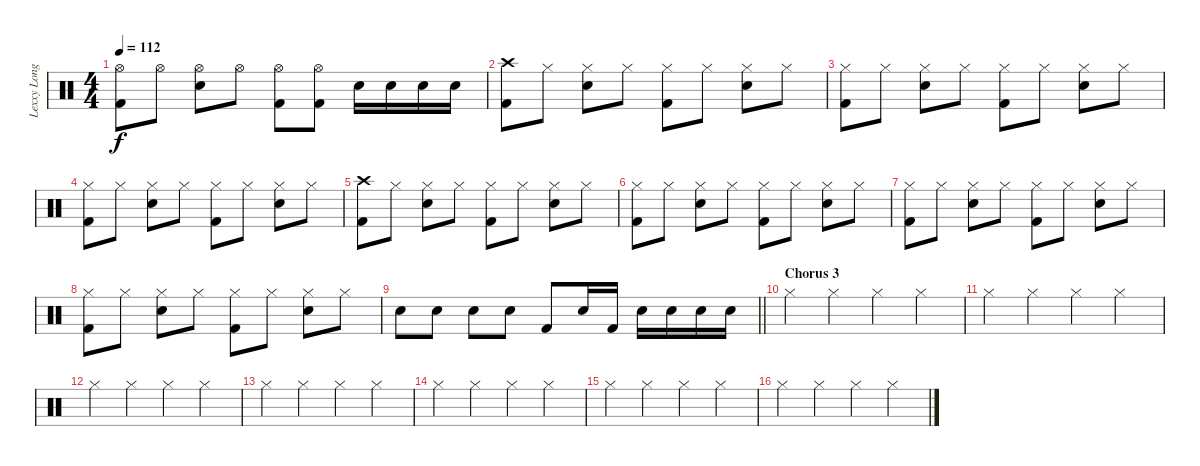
\track ("Lexxy Longlegz (Chuto)" "Lexxy Long") {instrument percussion}
\staff {score}
\articulation defaults
\ts (4 4)
\tempo 112
\clef neutral
\ks c
("Hi-Hat (open)" "Kick (hit) 2").8{dy f} "Hi-Hat (open)".8 ("Hi-Hat (open)" "Snare (hit) 2").8 "Hi-Hat (open)".8 ("Hi-Hat (open)" "Kick (hit) 2").8 ("Hi-Hat (open)" "Kick (hit) 2").8 "Snare (hit) 2".16 "Snare (hit) 2".16 "Snare (hit) 2".16 "Snare (hit) 2".16 |
("Crash high (hit)" "Kick (hit) 2").8 "Hi-Hat (closed)".8 ("Hi-Hat (closed)" "Snare (hit) 2").8 "Hi-Hat (closed)".8 ("Hi-Hat (closed)" "Kick (hit) 2").8 "Hi-Hat (closed)".8 ("Hi-Hat (closed)" "Snare (hit) 2").8 "Hi-Hat (closed)".8 |
("Hi-Hat (closed)" "Kick (hit) 2").8 "Hi-Hat (closed)".8 ("Hi-Hat (closed)" "Snare (hit) 2").8 "Hi-Hat (closed)".8 ("Hi-Hat (closed)" "Kick (hit) 2").8 "Hi-Hat (closed)".8 ("Hi-Hat (closed)" "Snare (hit) 2").8 "Hi-Hat (closed)".8 |
("Hi-Hat (closed)" "Kick (hit) 2").8 "Hi-Hat (closed)".8 ("Hi-Hat (closed)" "Snare (hit) 2").8 "Hi-Hat (closed)".8 ("Hi-Hat (closed)" "Kick (hit) 2").8 "Hi-Hat (closed)".8 ("Hi-Hat (closed)" "Snare (hit) 2").8 "Hi-Hat (closed)".8 |
("Crash high (hit)" "Kick (hit) 2").8 "Hi-Hat (closed)".8 ("Hi-Hat (closed)" "Snare (hit) 2").8 "Hi-Hat (closed)".8 ("Hi-Hat (closed)" "Kick (hit) 2").8 "Hi-Hat (closed)".8 ("Hi-Hat (closed)" "Snare (hit) 2").8 "Hi-Hat (closed)".8 |
("Hi-Hat (closed)" "Kick (hit) 2").8 "Hi-Hat (closed)".8 ("Hi-Hat (closed)" "Snare (hit) 2").8 "Hi-Hat (closed)".8 ("Hi-Hat (closed)" "Kick (hit) 2").8 "Hi-Hat (closed)".8 ("Hi-Hat (closed)" "Snare (hit) 2").8 "Hi-Hat (closed)".8 |
("Hi-Hat (closed)" "Kick (hit) 2").8 "Hi-Hat (closed)".8 ("Hi-Hat (closed)" "Snare (hit) 2").8 "Hi-Hat (closed)".8 ("Hi-Hat (closed)" "Kick (hit) 2").8 "Hi-Hat (closed)".8 ("Hi-Hat (closed)" "Snare (hit) 2").8 "Hi-Hat (closed)".8 |
("Hi-Hat (closed)" "Kick (hit) 2").8 "Hi-Hat (closed)".8 ("Hi-Hat (closed)" "Snare (hit) 2").8 "Hi-Hat (closed)".8 ("Hi-Hat (closed)" "Kick (hit) 2").8 "Hi-Hat (closed)".8 ("Hi-Hat (closed)" "Snare (hit) 2").8 "Hi-Hat (closed)".8 |
\barLineRight lightlight "Snare (hit) 2".8 "Snare (hit) 2".8 "Snare (hit) 2".8 "Snare (hit) 2".8 "Kick (hit) 2".8 "Snare (hit) 2".16 "Kick (hit) 2".16 "Snare (hit) 2".16 "Snare (hit) 2".16 "Snare (hit) 2".16 "Snare (hit) 2".16
|
\section ("" "Chorus 3")
"Hi-Hat (closed)".4 "Hi-Hat (closed)".4 "Hi-Hat (closed)".4 "Hi-Hat (closed)".4 |
"Hi-Hat (closed)".4 "Hi-Hat (closed)".4 "Hi-Hat (closed)".4 "Hi-Hat (closed)".4 |
"Hi-Hat (closed)".4 "Hi-Hat (closed)".4 "Hi-Hat (closed)".4 "Hi-Hat (closed)".4 |
"Hi-Hat (closed)".4 "Hi-Hat (closed)".4 "Hi-Hat (closed)".4 "Hi-Hat (closed)".4 |
"Hi-Hat (closed)".4 "Hi-Hat (closed)".4 "Hi-Hat (closed)".4 "Hi-Hat (closed)".4 |
"Hi-Hat (closed)".4 "Hi-Hat (closed)".4 "Hi-Hat (closed)".4 "Hi-Hat (closed)".4 |
"Hi-Hat (closed)".4 "Hi-Hat (closed)".4 "Hi-Hat (closed)".4 "Hi-Hat (closed)".4
